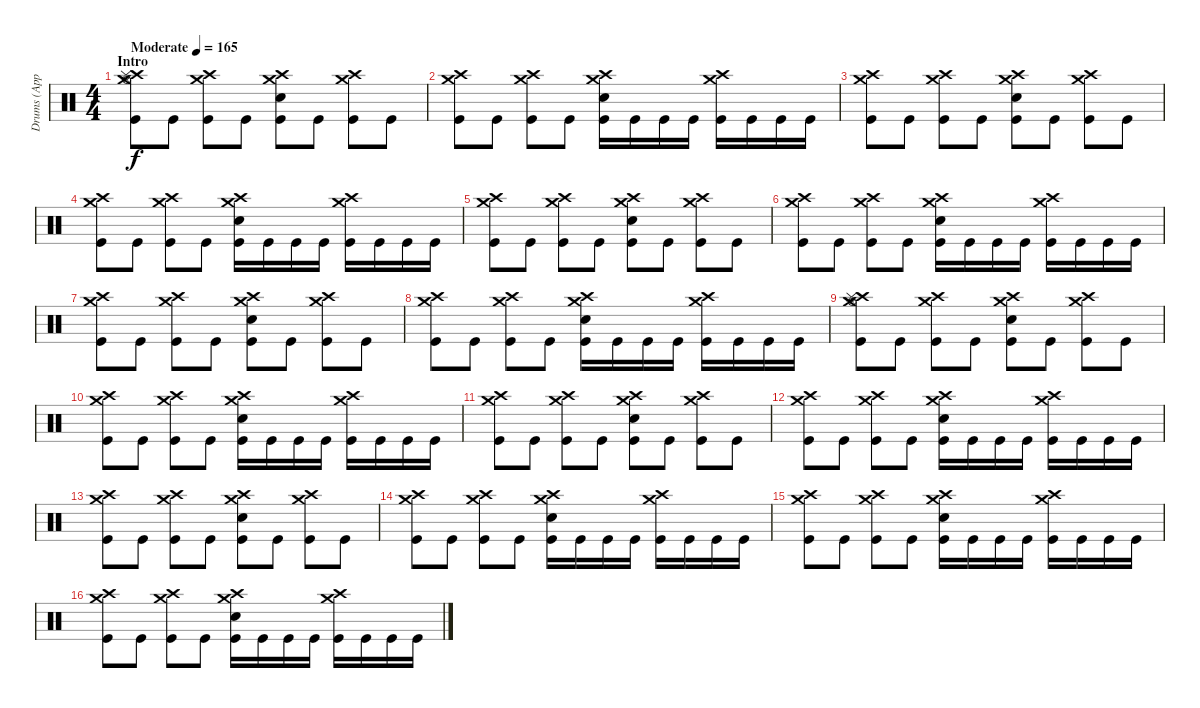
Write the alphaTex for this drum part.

\track ("Drums (Approx.)" "Drums (App") {instrument percussion}
\staff {score}
\articulation defaults
\ts (4 4)
\section ("" "Intro")
\tempo (165 "Moderate")
\clef neutral
\ks c
("Hi-Hat (open)" "Crash medium (hit)" "Crash high (hit)" "Splash (hit)" "Kick (hit)").8{dy f} "Kick (hit)".8 ("Crash medium (hit)" "Crash high (hit)" "Kick (hit)").8 "Kick (hit)".8 ("Crash medium (hit)" "Crash high (hit)" "Electric Snare (hit)" "Kick (hit)").8 "Kick (hit)".8 ("Crash medium (hit)" "Crash high (hit)" "Kick (hit)").8 "Kick (hit)".8 |
("Crash medium (hit)" "Crash high (hit)" "Kick (hit)").8 "Kick (hit)".8 ("Crash medium (hit)" "Crash high (hit)" "Kick (hit)").8 "Kick (hit)".8 ("Crash medium (hit)" "Crash high (hit)" "Electric Snare (hit)" "Kick (hit)").16 "Kick (hit)".16 "Kick (hit)".16 "Kick (hit)".16 ("Crash medium (hit)" "Crash high (hit)" "Kick (hit)").16 "Kick (hit)".16 "Kick (hit)".16 "Kick (hit)".16 |
("Crash medium (hit)" "Crash high (hit)" "Kick (hit)").8 "Kick (hit)".8 ("Crash medium (hit)" "Crash high (hit)" "Kick (hit)").8 "Kick (hit)".8 ("Crash medium (hit)" "Crash high (hit)" "Electric Snare (hit)" "Kick (hit)").8 "Kick (hit)".8 ("Crash medium (hit)" "Crash high (hit)" "Kick (hit)").8 "Kick (hit)".8 |
("Crash medium (hit)" "Crash high (hit)" "Kick (hit)").8 "Kick (hit)".8 ("Crash medium (hit)" "Crash high (hit)" "Kick (hit)").8 "Kick (hit)".8 ("Crash medium (hit)" "Crash high (hit)" "Electric Snare (hit)" "Kick (hit)").16 "Kick (hit)".16 "Kick (hit)".16 "Kick (hit)".16 ("Crash medium (hit)" "Crash high (hit)" "Kick (hit)").16 "Kick (hit)".16 "Kick (hit)".16 "Kick (hit)".16 |
("Crash medium (hit)" "Crash high (hit)" "Kick (hit)").8 "Kick (hit)".8 ("Crash medium (hit)" "Crash high (hit)" "Kick (hit)").8 "Kick (hit)".8 ("Crash medium (hit)" "Crash high (hit)" "Electric Snare (hit)" "Kick (hit)").8 "Kick (hit)".8 ("Crash medium (hit)" "Crash high (hit)" "Kick (hit)").8 "Kick (hit)".8 |
("Crash medium (hit)" "Crash high (hit)" "Kick (hit)").8 "Kick (hit)".8 ("Crash medium (hit)" "Crash high (hit)" "Kick (hit)").8 "Kick (hit)".8 ("Crash medium (hit)" "Crash high (hit)" "Electric Snare (hit)" "Kick (hit)").16 "Kick (hit)".16 "Kick (hit)".16 "Kick (hit)".16 ("Crash medium (hit)" "Crash high (hit)" "Kick (hit)").16 "Kick (hit)".16 "Kick (hit)".16 "Kick (hit)".16 |
("Crash medium (hit)" "Crash high (hit)" "Kick (hit)").8 "Kick (hit)".8 ("Crash medium (hit)" "Crash high (hit)" "Kick (hit)").8 "Kick (hit)".8 ("Crash medium (hit)" "Crash high (hit)" "Electric Snare (hit)" "Kick (hit)").8 "Kick (hit)".8 ("Crash medium (hit)" "Crash high (hit)" "Kick (hit)").8 "Kick (hit)".8 |
("Crash medium (hit)" "Crash high (hit)" "Kick (hit)").8 "Kick (hit)".8 ("Crash medium (hit)" "Crash high (hit)" "Kick (hit)").8 "Kick (hit)".8 ("Crash medium (hit)" "Crash high (hit)" "Electric Snare (hit)" "Kick (hit)").16 "Kick (hit)".16 "Kick (hit)".16 "Kick (hit)".16 ("Crash medium (hit)" "Crash high (hit)" "Kick (hit)").16 "Kick (hit)".16 "Kick (hit)".16 "Kick (hit)".16 |
("Hi-Hat (open)" "Crash medium (hit)" "Crash high (hit)" "Splash (hit)" "Kick (hit)").8 "Kick (hit)".8 ("Crash medium (hit)" "Crash high (hit)" "Kick (hit)").8 "Kick (hit)".8 ("Crash medium (hit)" "Crash high (hit)" "Electric Snare (hit)" "Kick (hit)").8 "Kick (hit)".8 ("Crash medium (hit)" "Crash high (hit)" "Kick (hit)").8 "Kick (hit)".8 |
("Crash medium (hit)" "Crash high (hit)" "Kick (hit)").8 "Kick (hit)".8 ("Crash medium (hit)" "Crash high (hit)" "Kick (hit)").8 "Kick (hit)".8 ("Crash medium (hit)" "Crash high (hit)" "Electric Snare (hit)" "Kick (hit)").16 "Kick (hit)".16 "Kick (hit)".16 "Kick (hit)".16 ("Crash medium (hit)" "Crash high (hit)" "Kick (hit)").16 "Kick (hit)".16 "Kick (hit)".16 "Kick (hit)".16 |
("Crash medium (hit)" "Crash high (hit)" "Kick (hit)").8 "Kick (hit)".8 ("Crash medium (hit)" "Crash high (hit)" "Kick (hit)").8 "Kick (hit)".8 ("Crash medium (hit)" "Crash high (hit)" "Electric Snare (hit)" "Kick (hit)").8 "Kick (hit)".8 ("Crash medium (hit)" "Crash high (hit)" "Kick (hit)").8 "Kick (hit)".8 |
("Crash medium (hit)" "Crash high (hit)" "Kick (hit)").8 "Kick (hit)".8 ("Crash medium (hit)" "Crash high (hit)" "Kick (hit)").8 "Kick (hit)".8 ("Crash medium (hit)" "Crash high (hit)" "Electric Snare (hit)" "Kick (hit)").16 "Kick (hit)".16 "Kick (hit)".16 "Kick (hit)".16 ("Crash medium (hit)" "Crash high (hit)" "Kick (hit)").16 "Kick (hit)".16 "Kick (hit)".16 "Kick (hit)".16 |
("Crash medium (hit)" "Crash high (hit)" "Kick (hit)").8 "Kick (hit)".8 ("Crash medium (hit)" "Crash high (hit)" "Kick (hit)").8 "Kick (hit)".8 ("Crash medium (hit)" "Crash high (hit)" "Electric Snare (hit)" "Kick (hit)").8 "Kick (hit)".8 ("Crash medium (hit)" "Crash high (hit)" "Kick (hit)").8 "Kick (hit)".8 |
("Crash medium (hit)" "Crash high (hit)" "Kick (hit)").8 "Kick (hit)".8 ("Crash medium (hit)" "Crash high (hit)" "Kick (hit)").8 "Kick (hit)".8 ("Crash medium (hit)" "Crash high (hit)" "Electric Snare (hit)" "Kick (hit)").16 "Kick (hit)".16 "Kick (hit)".16 "Kick (hit)".16 ("Crash medium (hit)" "Crash high (hit)" "Kick (hit)").16 "Kick (hit)".16 "Kick (hit)".16 "Kick (hit)".16 |
("Crash medium (hit)" "Crash high (hit)" "Kick (hit)").8 "Kick (hit)".8 ("Crash medium (hit)" "Crash high (hit)" "Kick (hit)").8 "Kick (hit)".8 ("Crash medium (hit)" "Crash high (hit)" "Electric Snare (hit)" "Kick (hit)").16 "Kick (hit)".16 "Kick (hit)".16 "Kick (hit)".16 ("Crash medium (hit)" "Crash high (hit)" "Kick (hit)").16 "Kick (hit)".16 "Kick (hit)".16 "Kick (hit)".16 |
("Crash medium (hit)" "Crash high (hit)" "Kick (hit)").8 "Kick (hit)".8 ("Crash medium (hit)" "Crash high (hit)" "Kick (hit)").8 "Kick (hit)".8 ("Crash medium (hit)" "Crash high (hit)" "Electric Snare (hit)" "Kick (hit)").16 "Kick (hit)".16 "Kick (hit)".16 "Kick (hit)".16 ("Crash medium (hit)" "Crash high (hit)" "Kick (hit)").16 "Kick (hit)".16 "Kick (hit)".16 "Kick (hit)".16
